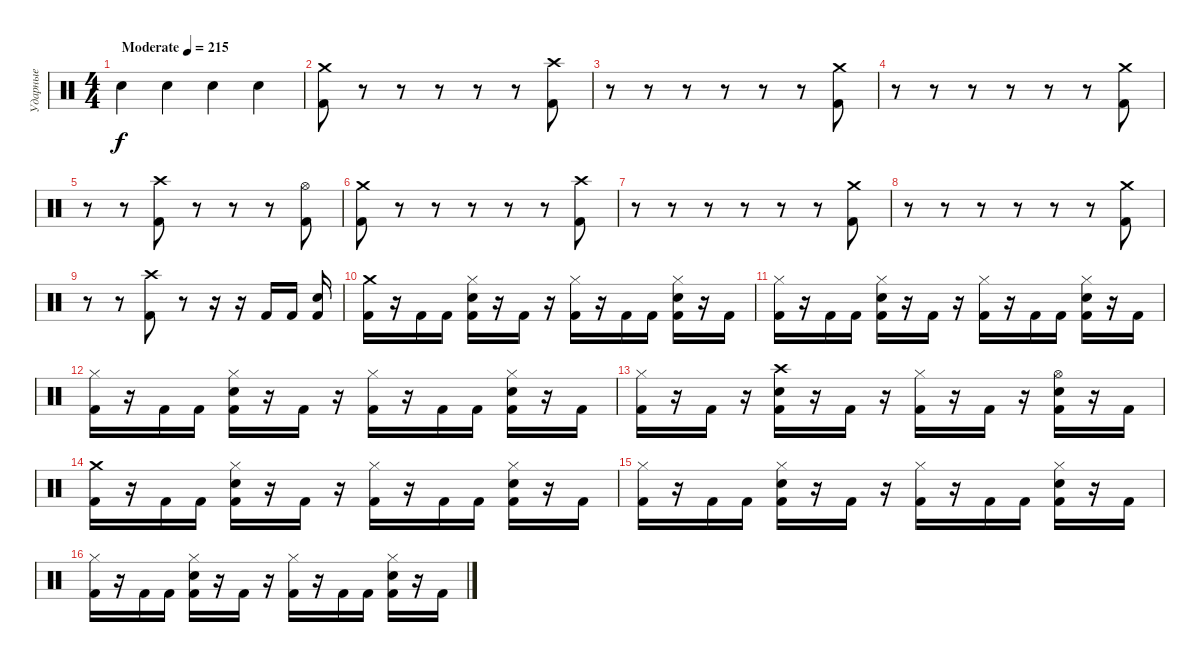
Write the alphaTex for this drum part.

\track ("Ударные" "Ударные") {instrument percussion}
\staff {score}
\articulation defaults
\ts (4 4)
\tempo (215 "Moderate")
\clef neutral
\ks c "Snare (hit) 2".4{dy f} "Snare (hit) 2".4 "Snare (hit) 2".4 "Snare (hit) 2".4
|
("Crash medium (hit)" "Kick (hit) 2").8 r.8 r.8 r.8 r.8 r.8 ("Crash high (hit)" "Kick (hit) 2").8 |
r.8 r.8 r.8 r.8 r.8 r.8 ("Crash medium (hit)" "Kick (hit) 2").8 |
r.8 r.8 r.8 r.8 r.8 r.8 ("Crash medium (hit)" "Kick (hit) 2").8 |
r.8 r.8 ("Crash high (hit)" "Kick (hit) 2").8 r.8 r.8 r.8 ("Hi-Hat (open)" "Kick (hit) 2").8 |
("Crash medium (hit)" "Kick (hit) 2").8 r.8 r.8 r.8 r.8 r.8 ("Crash high (hit)" "Kick (hit) 2").8 |
r.8 r.8 r.8 r.8 r.8 r.8 ("Crash medium (hit)" "Kick (hit) 2").8 |
r.8 r.8 r.8 r.8 r.8 r.8 ("Crash medium (hit)" "Kick (hit) 2").8 |
r.8 r.8 ("Crash high (hit)" "Kick (hit) 2").8 r.8 r.16 r.16 "Kick (hit) 2".16 "Kick (hit) 2".16 ("Snare (hit) 2" "Kick (hit) 2").16 |
("Crash medium (hit)" "Kick (hit) 2").16 r.16 "Kick (hit) 2".16 "Kick (hit) 2".16 ("Hi-Hat (closed)" "Snare (hit) 2" "Kick (hit) 2").16 r.16 "Kick (hit) 2".16 r.16 ("Hi-Hat (closed)" "Kick (hit) 2").16 r.16 "Kick (hit) 2".16 "Kick (hit) 2".16 ("Hi-Hat (closed)" "Snare (hit) 2" "Kick (hit) 2").16 r.16 "Kick (hit) 2".16 |
("Hi-Hat (closed)" "Kick (hit) 2").16 r.16 "Kick (hit) 2".16 "Kick (hit) 2".16 ("Hi-Hat (closed)" "Snare (hit) 2" "Kick (hit) 2").16 r.16 "Kick (hit) 2".16 r.16 ("Hi-Hat (closed)" "Kick (hit) 2").16 r.16 "Kick (hit) 2".16 "Kick (hit) 2".16 ("Hi-Hat (closed)" "Snare (hit) 2" "Kick (hit) 2").16 r.16 "Kick (hit) 2".16 |
("Hi-Hat (closed)" "Kick (hit) 2").16 r.16 "Kick (hit) 2".16 "Kick (hit) 2".16 ("Hi-Hat (closed)" "Snare (hit) 2" "Kick (hit) 2").16 r.16 "Kick (hit) 2".16 r.16 ("Hi-Hat (closed)" "Kick (hit) 2").16 r.16 "Kick (hit) 2".16 "Kick (hit) 2".16 ("Hi-Hat (closed)" "Snare (hit) 2" "Kick (hit) 2").16 r.16 "Kick (hit) 2".16 |
("Hi-Hat (closed)" "Kick (hit) 2").16 r.16 "Kick (hit) 2".16 r.16 ("Crash high (hit)" "Snare (hit) 2" "Kick (hit) 2").16 r.16 "Kick (hit) 2".16 r.16 ("Hi-Hat (closed)" "Kick (hit) 2").16 r.16 "Kick (hit) 2".16 r.16 ("Hi-Hat (open)" "Snare (hit) 2" "Kick (hit) 2").16 r.16 "Kick (hit) 2".16 |
("Crash medium (hit)" "Kick (hit) 2").16 r.16 "Kick (hit) 2".16 "Kick (hit) 2".16 ("Hi-Hat (closed)" "Snare (hit) 2" "Kick (hit) 2").16 r.16 "Kick (hit) 2".16 r.16 ("Hi-Hat (closed)" "Kick (hit) 2").16 r.16 "Kick (hit) 2".16 "Kick (hit) 2".16 ("Hi-Hat (closed)" "Snare (hit) 2" "Kick (hit) 2").16 r.16 "Kick (hit) 2".16 |
("Hi-Hat (closed)" "Kick (hit) 2").16 r.16 "Kick (hit) 2".16 "Kick (hit) 2".16 ("Hi-Hat (closed)" "Snare (hit) 2" "Kick (hit) 2").16 r.16 "Kick (hit) 2".16 r.16 ("Hi-Hat (closed)" "Kick (hit) 2").16 r.16 "Kick (hit) 2".16 "Kick (hit) 2".16 ("Hi-Hat (closed)" "Snare (hit) 2" "Kick (hit) 2").16 r.16 "Kick (hit) 2".16 |
("Hi-Hat (closed)" "Kick (hit) 2").16 r.16 "Kick (hit) 2".16 "Kick (hit) 2".16 ("Hi-Hat (closed)" "Snare (hit) 2" "Kick (hit) 2").16 r.16 "Kick (hit) 2".16 r.16 ("Hi-Hat (closed)" "Kick (hit) 2").16 r.16 "Kick (hit) 2".16 "Kick (hit) 2".16 ("Hi-Hat (closed)" "Snare (hit) 2" "Kick (hit) 2").16 r.16 "Kick (hit) 2".16
